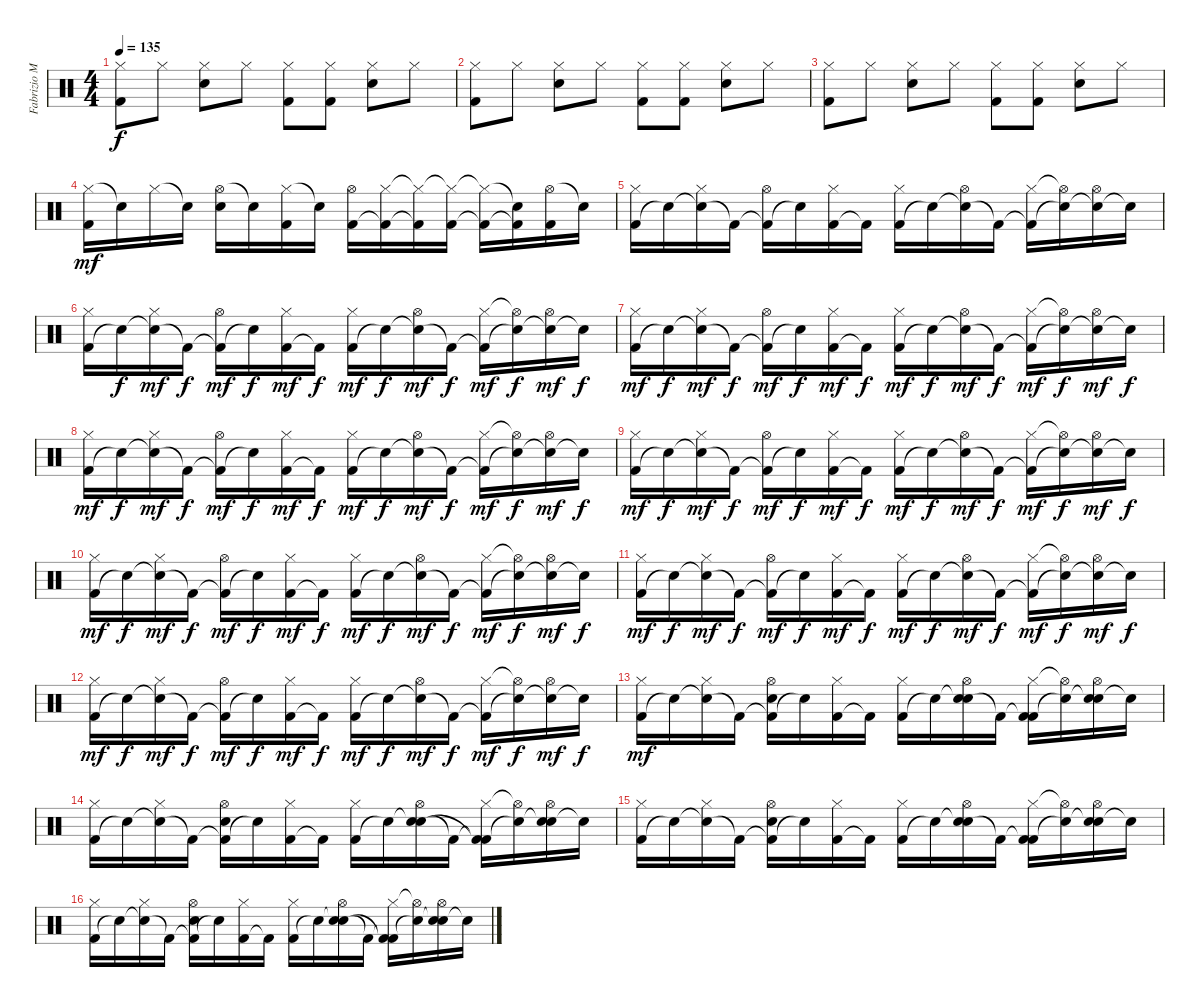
\track ("Fabrizio Moretti" "Fabrizio M") {instrument percussion}
\staff {score}
\articulation defaults
\ts (4 4)
\tempo 135
\clef neutral
\ks c
("Hi-Hat (closed)" "Kick (hit) 2").8{dy f} "Hi-Hat (closed)".8 ("Hi-Hat (closed)" "Electric Snare (hit)").8 "Hi-Hat (closed)".8 ("Hi-Hat (closed)" "Kick (hit) 2").8 ("Hi-Hat (closed)" "Kick (hit) 2").8 ("Hi-Hat (closed)" "Electric Snare (hit)").8 "Hi-Hat (closed)".8 |
("Hi-Hat (closed)" "Kick (hit) 2").8 "Hi-Hat (closed)".8 ("Hi-Hat (closed)" "Electric Snare (hit)").8 "Hi-Hat (closed)".8 ("Hi-Hat (closed)" "Kick (hit) 2").8 ("Hi-Hat (closed)" "Kick (hit) 2").8 ("Hi-Hat (closed)" "Electric Snare (hit)").8 "Hi-Hat (closed)".8 |
("Hi-Hat (closed)" "Kick (hit) 2").8 "Hi-Hat (closed)".8 ("Hi-Hat (closed)" "Electric Snare (hit)").8 "Hi-Hat (closed)".8 ("Hi-Hat (closed)" "Kick (hit) 2").8 ("Hi-Hat (closed)" "Kick (hit) 2").8 ("Hi-Hat (closed)" "Electric Snare (hit)").8 "Hi-Hat (closed)".8 |
("Hi-Hat (closed)" "Kick (hit) 2").16{dy mf} "Snare (hit)"{t}.16 "Hi-Hat (closed)".16 "Snare (hit)"{t}.16 ("Hi-Hat (open)" "Electric Snare (hit)").16 "Snare (hit)"{t}.16 ("Hi-Hat (closed)" "Kick (hit) 2").16 "Snare (hit)"{t}.16 ("Hi-Hat (open)" "Kick (hit) 2").16 ("Hi-Hat (closed)" "Kick (hit) 2"{t}).16 ("Hi-Hat (closed)"{t} "Kick (hit) 2"{t}).16 ("Hi-Hat (closed)"{t} "Kick (hit) 2").16 ("Hi-Hat (closed)"{t} "Kick (hit) 2"{t}).16 ("Snare (hit)"{t} "Kick (hit) 2"{t}).16 ("Hi-Hat (open)" "Kick (hit) 2").16 "Snare (hit)"{t}.16 |
("Kick (hit) 2" "Hi-Hat (closed)").16 "Snare (hit)"{t}.16 ("Snare (hit)"{t} "Hi-Hat (closed)").16 "Kick (hit) 2"{t}.16 ("Kick (hit) 2"{t} "Hi-Hat (open)").16 "Snare (hit)"{t}.16 ("Kick (hit) 2" "Hi-Hat (closed)").16 "Kick (hit) 2"{t}.16 ("Kick (hit) 2" "Hi-Hat (closed)").16 "Snare (hit)"{t}.16 ("Snare (hit)"{t} "Hi-Hat (open)").16 "Kick (hit) 2"{t}.16 ("Kick (hit) 2"{t} "Hi-Hat (closed)").16 ("Snare (hit)"{t} "Hi-Hat (open)"{t}).16 ("Snare (hit)"{t} "Hi-Hat (open)").16 "Snare (hit)"{t}.16 |
("Kick (hit) 2" "Hi-Hat (closed)").16 "Snare (hit)"{t}.16{dy f} ("Snare (hit)"{t} "Hi-Hat (closed)").16{dy mf} "Kick (hit) 2"{t}.16{dy f} ("Kick (hit) 2"{t} "Hi-Hat (open)").16{dy mf} "Snare (hit)"{t}.16{dy f} ("Kick (hit) 2" "Hi-Hat (closed)").16{dy mf} "Kick (hit) 2"{t}.16{dy f} ("Kick (hit) 2" "Hi-Hat (closed)").16{dy mf} "Snare (hit)"{t}.16{dy f} ("Snare (hit)"{t} "Hi-Hat (open)").16{dy mf} "Kick (hit) 2"{t}.16{dy f} ("Kick (hit) 2"{t} "Hi-Hat (closed)").16{dy mf} ("Snare (hit)"{t} "Hi-Hat (open)"{t}).16{dy f} ("Snare (hit)"{t} "Hi-Hat (open)").16{dy mf} "Snare (hit)"{t}.16{dy f} |
("Kick (hit) 2" "Hi-Hat (closed)").16{dy mf} "Snare (hit)"{t}.16{dy f} ("Snare (hit)"{t} "Hi-Hat (closed)").16{dy mf} "Kick (hit) 2"{t}.16{dy f} ("Kick (hit) 2"{t} "Hi-Hat (open)").16{dy mf} "Snare (hit)"{t}.16{dy f} ("Kick (hit) 2" "Hi-Hat (closed)").16{dy mf} "Kick (hit) 2"{t}.16{dy f} ("Kick (hit) 2" "Hi-Hat (closed)").16{dy mf} "Snare (hit)"{t}.16{dy f} ("Snare (hit)"{t} "Hi-Hat (open)").16{dy mf} "Kick (hit) 2"{t}.16{dy f} ("Kick (hit) 2"{t} "Hi-Hat (closed)").16{dy mf} ("Snare (hit)"{t} "Hi-Hat (open)"{t}).16{dy f} ("Snare (hit)"{t} "Hi-Hat (open)").16{dy mf} "Snare (hit)"{t}.16{dy f} |
("Kick (hit) 2" "Hi-Hat (closed)").16{dy mf} "Snare (hit)"{t}.16{dy f} ("Snare (hit)"{t} "Hi-Hat (closed)").16{dy mf} "Kick (hit) 2"{t}.16{dy f} ("Kick (hit) 2"{t} "Hi-Hat (open)").16{dy mf} "Snare (hit)"{t}.16{dy f} ("Kick (hit) 2" "Hi-Hat (closed)").16{dy mf} "Kick (hit) 2"{t}.16{dy f} ("Kick (hit) 2" "Hi-Hat (closed)").16{dy mf} "Snare (hit)"{t}.16{dy f} ("Snare (hit)"{t} "Hi-Hat (open)").16{dy mf} "Kick (hit) 2"{t}.16{dy f} ("Kick (hit) 2"{t} "Hi-Hat (closed)").16{dy mf} ("Snare (hit)"{t} "Hi-Hat (open)"{t}).16{dy f} ("Snare (hit)"{t} "Hi-Hat (open)").16{dy mf} "Snare (hit)"{t}.16{dy f} |
("Kick (hit) 2" "Hi-Hat (closed)").16{dy mf} "Snare (hit)"{t}.16{dy f} ("Snare (hit)"{t} "Hi-Hat (closed)").16{dy mf} "Kick (hit) 2"{t}.16{dy f} ("Kick (hit) 2"{t} "Hi-Hat (open)").16{dy mf} "Snare (hit)"{t}.16{dy f} ("Kick (hit) 2" "Hi-Hat (closed)").16{dy mf} "Kick (hit) 2"{t}.16{dy f} ("Kick (hit) 2" "Hi-Hat (closed)").16{dy mf} "Snare (hit)"{t}.16{dy f} ("Snare (hit)"{t} "Hi-Hat (open)").16{dy mf} "Kick (hit) 2"{t}.16{dy f} ("Kick (hit) 2"{t} "Hi-Hat (closed)").16{dy mf} ("Snare (hit)"{t} "Hi-Hat (open)"{t}).16{dy f} ("Snare (hit)"{t} "Hi-Hat (open)").16{dy mf} "Snare (hit)"{t}.16{dy f} |
("Kick (hit) 2" "Hi-Hat (closed)").16{dy mf} "Snare (hit)"{t}.16{dy f} ("Snare (hit)"{t} "Hi-Hat (closed)").16{dy mf} "Kick (hit) 2"{t}.16{dy f} ("Kick (hit) 2"{t} "Hi-Hat (open)").16{dy mf} "Snare (hit)"{t}.16{dy f} ("Kick (hit) 2" "Hi-Hat (closed)").16{dy mf} "Kick (hit) 2"{t}.16{dy f} ("Kick (hit) 2" "Hi-Hat (closed)").16{dy mf} "Snare (hit)"{t}.16{dy f} ("Snare (hit)"{t} "Hi-Hat (open)").16{dy mf} "Kick (hit) 2"{t}.16{dy f} ("Kick (hit) 2"{t} "Hi-Hat (closed)").16{dy mf} ("Snare (hit)"{t} "Hi-Hat (open)"{t}).16{dy f} ("Snare (hit)"{t} "Hi-Hat (open)").16{dy mf} "Snare (hit)"{t}.16{dy f} |
("Kick (hit) 2" "Hi-Hat (closed)").16{dy mf} "Snare (hit)"{t}.16{dy f} ("Snare (hit)"{t} "Hi-Hat (closed)").16{dy mf} "Kick (hit) 2"{t}.16{dy f} ("Kick (hit) 2"{t} "Hi-Hat (open)").16{dy mf} "Snare (hit)"{t}.16{dy f} ("Kick (hit) 2" "Hi-Hat (closed)").16{dy mf} "Kick (hit) 2"{t}.16{dy f} ("Kick (hit) 2" "Hi-Hat (closed)").16{dy mf} "Snare (hit)"{t}.16{dy f} ("Snare (hit)"{t} "Hi-Hat (open)").16{dy mf} "Kick (hit) 2"{t}.16{dy f} ("Kick (hit) 2"{t} "Hi-Hat (closed)").16{dy mf} ("Snare (hit)"{t} "Hi-Hat (open)"{t}).16{dy f} ("Snare (hit)"{t} "Hi-Hat (open)").16{dy mf} "Snare (hit)"{t}.16{dy f} |
("Kick (hit) 2" "Hi-Hat (closed)").16{dy mf} "Snare (hit)"{t}.16{dy f} ("Snare (hit)"{t} "Hi-Hat (closed)").16{dy mf} "Kick (hit) 2"{t}.16{dy f} ("Kick (hit) 2"{t} "Hi-Hat (open)").16{dy mf} "Snare (hit)"{t}.16{dy f} ("Kick (hit) 2" "Hi-Hat (closed)").16{dy mf} "Kick (hit) 2"{t}.16{dy f} ("Kick (hit) 2" "Hi-Hat (closed)").16{dy mf} "Snare (hit)"{t}.16{dy f} ("Snare (hit)"{t} "Hi-Hat (open)").16{dy mf} "Kick (hit) 2"{t}.16{dy f} ("Kick (hit) 2"{t} "Hi-Hat (closed)").16{dy mf} ("Snare (hit)"{t} "Hi-Hat (open)"{t}).16{dy f} ("Snare (hit)"{t} "Hi-Hat (open)").16{dy mf} "Snare (hit)"{t}.16{dy f} |
("Kick (hit) 2" "Hi-Hat (closed)").16{dy mf} "Snare (hit)"{t}.16 ("Snare (hit)"{t} "Hi-Hat (closed)").16 "Kick (hit) 2"{t}.16 ("Kick (hit) 2"{t} "Hi-Hat (open)" "Electric Snare (hit)").16 "Snare (hit)"{t}.16 ("Kick (hit) 2" "Hi-Hat (closed)").16 "Kick (hit) 2"{t}.16 ("Kick (hit) 2" "Hi-Hat (closed)").16 "Snare (hit)"{t}.16 ("Snare (hit)"{t} "Hi-Hat (open)" "Electric Snare (hit)").16 "Kick (hit) 2"{t}.16 ("Kick (hit) 2"{t} "Hi-Hat (closed)" "Kick (hit) 2").16 ("Snare (hit)"{t} "Hi-Hat (open)"{t}).16 ("Snare (hit)"{t} "Hi-Hat (open)" "Electric Snare (hit)").16 "Snare (hit)"{t}.16 |
("Kick (hit) 2" "Hi-Hat (closed)").16 "Snare (hit)"{t}.16 ("Snare (hit)"{t} "Hi-Hat (closed)").16 "Kick (hit) 2"{t}.16 ("Kick (hit) 2"{t} "Hi-Hat (open)" "Electric Snare (hit)").16 "Snare (hit)"{t}.16 ("Kick (hit) 2" "Hi-Hat (closed)").16 "Kick (hit) 2"{t}.16 ("Kick (hit) 2" "Hi-Hat (closed)").16 "Snare (hit)"{t}.16 ("Snare (hit)"{t} "Hi-Hat (open)" "Electric Snare (hit)").16 "Kick (hit) 2"{t}.16 ("Kick (hit) 2"{t} "Hi-Hat (closed)" "Kick (hit) 2"{t}).16 ("Snare (hit)"{t} "Hi-Hat (open)"{t}).16 ("Snare (hit)"{t} "Hi-Hat (open)" "Electric Snare (hit)").16 "Snare (hit)"{t}.16 |
("Kick (hit) 2" "Hi-Hat (closed)").16 "Snare (hit)"{t}.16 ("Snare (hit)"{t} "Hi-Hat (closed)").16 "Kick (hit) 2"{t}.16 ("Kick (hit) 2"{t} "Hi-Hat (open)" "Electric Snare (hit)").16 "Snare (hit)"{t}.16 ("Kick (hit) 2" "Hi-Hat (closed)").16 "Kick (hit) 2"{t}.16 ("Kick (hit) 2" "Hi-Hat (closed)").16 "Snare (hit)"{t}.16 ("Snare (hit)"{t} "Hi-Hat (open)" "Electric Snare (hit)").16 "Kick (hit) 2"{t}.16 ("Kick (hit) 2"{t} "Hi-Hat (closed)" "Kick (hit) 2").16 ("Snare (hit)"{t} "Hi-Hat (open)"{t}).16 ("Snare (hit)"{t} "Hi-Hat (open)" "Electric Snare (hit)").16 "Snare (hit)"{t}.16 |
("Kick (hit) 2" "Hi-Hat (closed)").16 "Snare (hit)"{t}.16 ("Snare (hit)"{t} "Hi-Hat (closed)").16 "Kick (hit) 2"{t}.16 ("Kick (hit) 2"{t} "Hi-Hat (open)" "Electric Snare (hit)").16 "Snare (hit)"{t}.16 ("Kick (hit) 2" "Hi-Hat (closed)").16 "Kick (hit) 2"{t}.16 ("Kick (hit) 2" "Hi-Hat (closed)").16 "Snare (hit)"{t}.16 ("Snare (hit)"{t} "Hi-Hat (open)" "Electric Snare (hit)").16 "Kick (hit) 2"{t}.16 ("Kick (hit) 2"{t} "Hi-Hat (closed)" "Kick (hit) 2"{t}).16 ("Snare (hit)"{t} "Hi-Hat (open)"{t}).16 ("Snare (hit)"{t} "Hi-Hat (open)" "Electric Snare (hit)").16 "Snare (hit)"{t}.16
